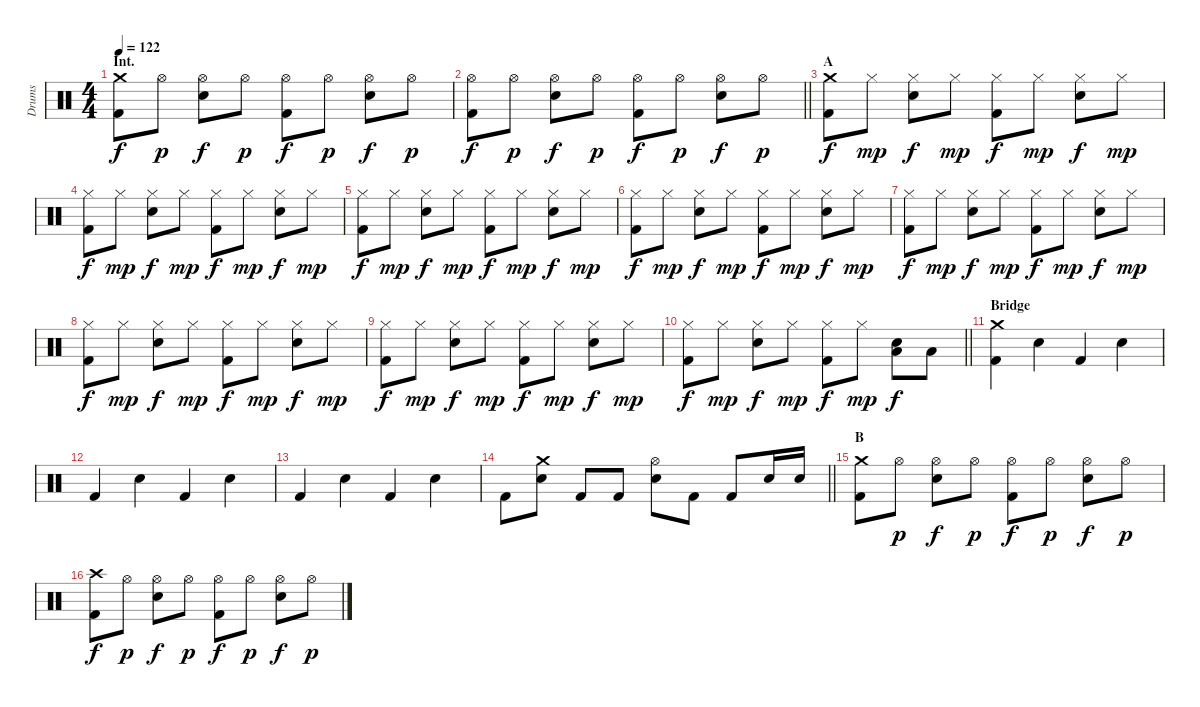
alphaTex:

\track ("Drums" "Drums") {instrument percussion}
\staff {score}
\articulation defaults
\ts (4 4)
\section ("" "Int.")
\tempo 122
\clef neutral
\ks c
("Crash medium (hit)" "Kick (hit) 2").8{dy f} "Hi-Hat (open)".8{dy p} ("Hi-Hat (open)" "Electric Snare (hit)").8{dy f} "Hi-Hat (open)".8{dy p} ("Hi-Hat (open)" "Kick (hit) 2").8{dy f} "Hi-Hat (open)".8{dy p} ("Hi-Hat (open)" "Electric Snare (hit)").8{dy f} "Hi-Hat (open)".8{dy p} |
\barLineRight lightlight
("Hi-Hat (open)" "Kick (hit) 2").8{dy f} "Hi-Hat (open)".8{dy p} ("Hi-Hat (open)" "Electric Snare (hit)").8{dy f} "Hi-Hat (open)".8{dy p} ("Hi-Hat (open)" "Kick (hit) 2").8{dy f} "Hi-Hat (open)".8{dy p} ("Hi-Hat (open)" "Electric Snare (hit)").8{dy f} "Hi-Hat (open)".8{dy p} |
\section ("" "A")
("Crash medium (hit)" "Kick (hit) 2").8{dy f} "Hi-Hat (closed)".8{dy mp} ("Hi-Hat (closed)" "Electric Snare (hit)").8{dy f} "Hi-Hat (closed)".8{dy mp} ("Hi-Hat (closed)" "Kick (hit) 2").8{dy f} "Hi-Hat (closed)".8{dy mp} ("Hi-Hat (closed)" "Electric Snare (hit)").8{dy f} "Hi-Hat (closed)".8{dy mp} |
("Hi-Hat (closed)" "Kick (hit) 2").8{dy f} "Hi-Hat (closed)".8{dy mp} ("Hi-Hat (closed)" "Electric Snare (hit)").8{dy f} "Hi-Hat (closed)".8{dy mp} ("Hi-Hat (closed)" "Kick (hit) 2").8{dy f} "Hi-Hat (closed)".8{dy mp} ("Hi-Hat (closed)" "Electric Snare (hit)").8{dy f} "Hi-Hat (closed)".8{dy mp} |
("Hi-Hat (closed)" "Kick (hit) 2").8{dy f} "Hi-Hat (closed)".8{dy mp} ("Hi-Hat (closed)" "Electric Snare (hit)").8{dy f} "Hi-Hat (closed)".8{dy mp} ("Hi-Hat (closed)" "Kick (hit) 2").8{dy f} "Hi-Hat (closed)".8{dy mp} ("Hi-Hat (closed)" "Electric Snare (hit)").8{dy f} "Hi-Hat (closed)".8{dy mp} |
("Hi-Hat (closed)" "Kick (hit) 2").8{dy f} "Hi-Hat (closed)".8{dy mp} ("Hi-Hat (closed)" "Electric Snare (hit)").8{dy f} "Hi-Hat (closed)".8{dy mp} ("Hi-Hat (closed)" "Kick (hit) 2").8{dy f} "Hi-Hat (closed)".8{dy mp} ("Hi-Hat (closed)" "Electric Snare (hit)").8{dy f} "Hi-Hat (closed)".8{dy mp} |
("Hi-Hat (closed)" "Kick (hit) 2").8{dy f} "Hi-Hat (closed)".8{dy mp} ("Hi-Hat (closed)" "Electric Snare (hit)").8{dy f} "Hi-Hat (closed)".8{dy mp} ("Hi-Hat (closed)" "Kick (hit) 2").8{dy f} "Hi-Hat (closed)".8{dy mp} ("Hi-Hat (closed)" "Electric Snare (hit)").8{dy f} "Hi-Hat (closed)".8{dy mp} |
("Hi-Hat (closed)" "Kick (hit) 2").8{dy f} "Hi-Hat (closed)".8{dy mp} ("Hi-Hat (closed)" "Electric Snare (hit)").8{dy f} "Hi-Hat (closed)".8{dy mp} ("Hi-Hat (closed)" "Kick (hit) 2").8{dy f} "Hi-Hat (closed)".8{dy mp} ("Hi-Hat (closed)" "Electric Snare (hit)").8{dy f} "Hi-Hat (closed)".8{dy mp} |
("Hi-Hat (closed)" "Kick (hit) 2").8{dy f} "Hi-Hat (closed)".8{dy mp} ("Hi-Hat (closed)" "Electric Snare (hit)").8{dy f} "Hi-Hat (closed)".8{dy mp} ("Hi-Hat (closed)" "Kick (hit) 2").8{dy f} "Hi-Hat (closed)".8{dy mp} ("Hi-Hat (closed)" "Electric Snare (hit)").8{dy f} "Hi-Hat (closed)".8{dy mp} |
\barLineRight lightlight
("Hi-Hat (closed)" "Kick (hit) 2").8{dy f} "Hi-Hat (closed)".8{dy mp} ("Hi-Hat (closed)" "Electric Snare (hit)").8{dy f} "Hi-Hat (closed)".8{dy mp} ("Hi-Hat (closed)" "Kick (hit) 2").8{dy f} "Hi-Hat (closed)".8{dy mp} ("Electric Snare (hit)" "Low Floor Tom (hit)").8{dy f} "Low Tom (hit)".8 |
\section ("" "Bridge")
("Kick (hit) 2" "Crash medium (hit)").4 "Electric Snare (hit)".4 "Kick (hit) 2".4 "Electric Snare (hit)".4 |
"Kick (hit) 2".4 "Electric Snare (hit)".4 "Kick (hit) 2".4 "Electric Snare (hit)".4 |
"Kick (hit) 2".4 "Electric Snare (hit)".4 "Kick (hit) 2".4 "Electric Snare (hit)".4 |
\barLineRight lightlight "Kick (hit) 2".8
("Crash medium (hit)" "Electric Snare (hit)").8 "Kick (hit) 2".8 "Kick (hit) 2".8 ("Hi-Hat (open)" "Electric Snare (hit)").8 "Kick (hit) 2".8 "Kick (hit) 2".8 "Electric Snare (hit)".16 "Electric Snare (hit)".16 |
\section ("" "B")
("Crash medium (hit)" "Kick (hit) 2").8 "Hi-Hat (open)".8{dy p} ("Hi-Hat (open)" "Electric Snare (hit)").8{dy f} "Hi-Hat (open)".8{dy p} ("Hi-Hat (open)" "Kick (hit) 2").8{dy f} "Hi-Hat (open)".8{dy p} ("Hi-Hat (open)" "Electric Snare (hit)").8{dy f} "Hi-Hat (open)".8{dy p} |
("Crash high (hit)" "Kick (hit) 2").8{dy f} "Hi-Hat (open)".8{dy p} ("Hi-Hat (open)" "Electric Snare (hit)").8{dy f} "Hi-Hat (open)".8{dy p} ("Hi-Hat (open)" "Kick (hit) 2").8{dy f} "Hi-Hat (open)".8{dy p} ("Hi-Hat (open)" "Electric Snare (hit)").8{dy f} "Hi-Hat (open)".8{dy p}
